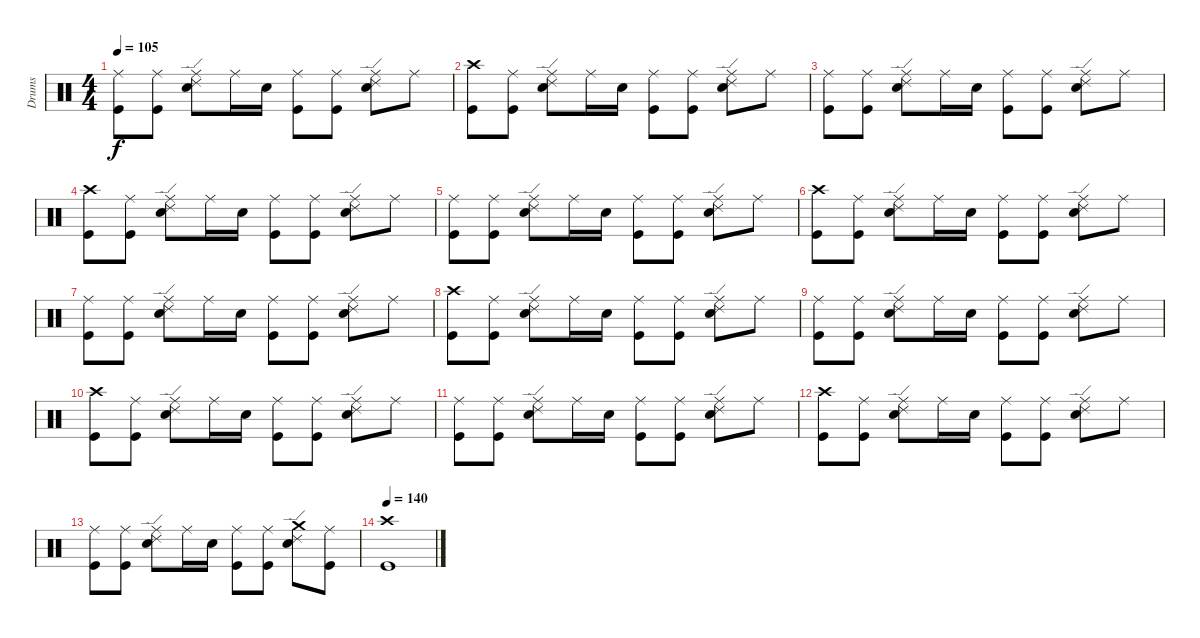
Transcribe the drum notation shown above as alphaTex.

\track ("Drums" "Drums") {instrument percussion}
\staff {score}
\articulation defaults
\ts (4 4)
\tempo 105
\clef neutral
\ks c
("Ride (middle)" "Kick (hit)").8{dy f} ("Ride (middle)" "Kick (hit)").8 ("Ride (middle)" "Ride (edge) 2" "Snare (hit) 2").8 "Ride (middle)".16 "Snare (hit) 2".16 ("Ride (middle)" "Kick (hit)").8 ("Ride (middle)" "Kick (hit)").8 ("Ride (middle)" "Ride (edge) 2" "Snare (hit) 2").8 "Ride (middle)".8 |
("Crash high (hit)" "Kick (hit)").8 ("Ride (middle)" "Kick (hit)").8 ("Ride (middle)" "Ride (edge) 2" "Snare (hit) 2").8 "Ride (middle)".16 "Snare (hit) 2".16 ("Ride (middle)" "Kick (hit)").8 ("Ride (middle)" "Kick (hit)").8 ("Ride (middle)" "Ride (edge) 2" "Snare (hit) 2").8 "Ride (middle)".8 |
("Ride (middle)" "Kick (hit)").8 ("Ride (middle)" "Kick (hit)").8 ("Ride (middle)" "Ride (edge) 2" "Snare (hit) 2").8 "Ride (middle)".16 "Snare (hit) 2".16 ("Ride (middle)" "Kick (hit)").8 ("Ride (middle)" "Kick (hit)").8 ("Ride (middle)" "Ride (edge) 2" "Snare (hit) 2").8 "Ride (middle)".8 |
("Crash high (hit)" "Kick (hit)").8 ("Ride (middle)" "Kick (hit)").8 ("Ride (middle)" "Ride (edge) 2" "Snare (hit) 2").8 "Ride (middle)".16 "Snare (hit) 2".16 ("Ride (middle)" "Kick (hit)").8 ("Ride (middle)" "Kick (hit)").8 ("Ride (middle)" "Ride (edge) 2" "Snare (hit) 2").8 "Ride (middle)".8 |
("Ride (middle)" "Kick (hit)").8 ("Ride (middle)" "Kick (hit)").8 ("Ride (middle)" "Ride (edge) 2" "Snare (hit) 2").8 "Ride (middle)".16 "Snare (hit) 2".16 ("Ride (middle)" "Kick (hit)").8 ("Ride (middle)" "Kick (hit)").8 ("Ride (middle)" "Ride (edge) 2" "Snare (hit) 2").8 "Ride (middle)".8 |
("Crash high (hit)" "Kick (hit)").8 ("Ride (middle)" "Kick (hit)").8 ("Ride (middle)" "Ride (edge) 2" "Snare (hit) 2").8 "Ride (middle)".16 "Snare (hit) 2".16 ("Ride (middle)" "Kick (hit)").8 ("Ride (middle)" "Kick (hit)").8 ("Ride (middle)" "Ride (edge) 2" "Snare (hit) 2").8 "Ride (middle)".8 |
("Ride (middle)" "Kick (hit)").8 ("Ride (middle)" "Kick (hit)").8 ("Ride (middle)" "Ride (edge) 2" "Snare (hit) 2").8 "Ride (middle)".16 "Snare (hit) 2".16 ("Ride (middle)" "Kick (hit)").8 ("Ride (middle)" "Kick (hit)").8 ("Ride (middle)" "Ride (edge) 2" "Snare (hit) 2").8 "Ride (middle)".8 |
("Crash high (hit)" "Kick (hit)").8 ("Ride (middle)" "Kick (hit)").8 ("Ride (middle)" "Ride (edge) 2" "Snare (hit) 2").8 "Ride (middle)".16 "Snare (hit) 2".16 ("Ride (middle)" "Kick (hit)").8 ("Ride (middle)" "Kick (hit)").8 ("Ride (middle)" "Ride (edge) 2" "Snare (hit) 2").8 "Ride (middle)".8 |
("Ride (middle)" "Kick (hit)").8 ("Ride (middle)" "Kick (hit)").8 ("Ride (middle)" "Ride (edge) 2" "Snare (hit) 2").8 "Ride (middle)".16 "Snare (hit) 2".16 ("Ride (middle)" "Kick (hit)").8 ("Ride (middle)" "Kick (hit)").8 ("Ride (middle)" "Ride (edge) 2" "Snare (hit) 2").8 "Ride (middle)".8 |
("Crash high (hit)" "Kick (hit)").8 ("Ride (middle)" "Kick (hit)").8 ("Ride (middle)" "Ride (edge) 2" "Snare (hit) 2").8 "Ride (middle)".16 "Snare (hit) 2".16 ("Ride (middle)" "Kick (hit)").8 ("Ride (middle)" "Kick (hit)").8 ("Ride (middle)" "Ride (edge) 2" "Snare (hit) 2").8 "Ride (middle)".8 |
("Ride (middle)" "Kick (hit)").8 ("Ride (middle)" "Kick (hit)").8 ("Ride (middle)" "Ride (edge) 2" "Snare (hit) 2").8 "Ride (middle)".16 "Snare (hit) 2".16 ("Ride (middle)" "Kick (hit)").8 ("Ride (middle)" "Kick (hit)").8 ("Ride (middle)" "Ride (edge) 2" "Snare (hit) 2").8 "Ride (middle)".8 |
("Crash high (hit)" "Kick (hit)").8 ("Ride (middle)" "Kick (hit)").8 ("Ride (middle)" "Ride (edge) 2" "Snare (hit) 2").8 "Ride (middle)".16 "Snare (hit) 2".16 ("Ride (middle)" "Kick (hit)").8 ("Ride (middle)" "Kick (hit)").8 ("Ride (middle)" "Ride (edge) 2" "Snare (hit) 2").8 "Ride (middle)".8 |
("Ride (middle)" "Kick (hit)").8 ("Ride (middle)" "Kick (hit)").8 ("Ride (middle)" "Ride (edge) 2" "Snare (hit) 2").8 "Ride (middle)".16 "Snare (hit) 2".16 ("Ride (middle)" "Kick (hit)").8 ("Ride (middle)" "Kick (hit)").8 ("Crash medium (hit)" "Ride (edge) 2" "Snare (hit) 2").8 ("Ride (middle)" "Kick (hit)").8 |
\tempo 140
("Crash high (hit)" "Kick (hit)").1
